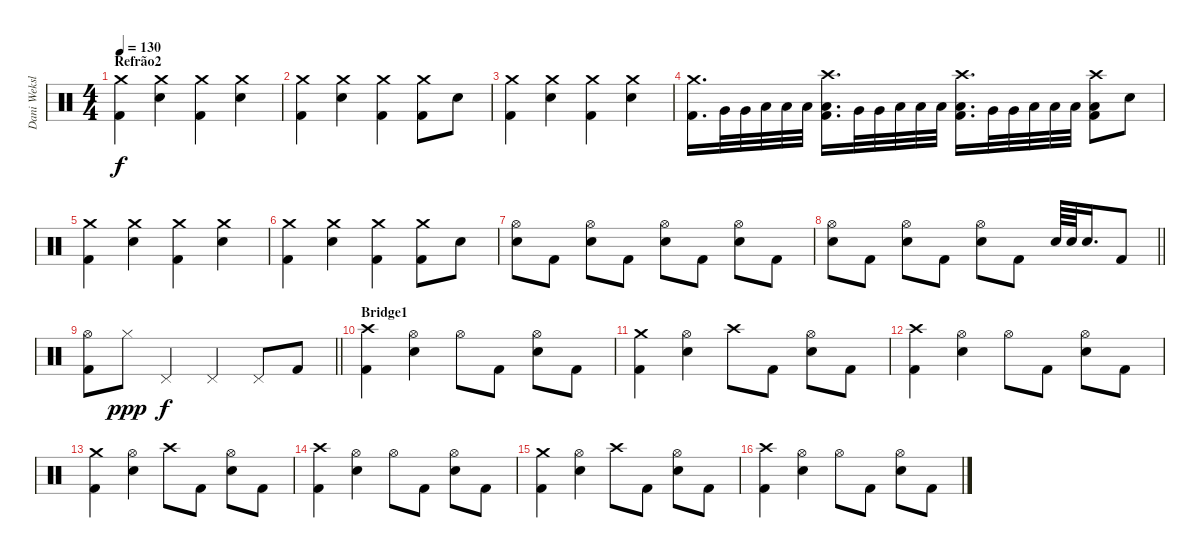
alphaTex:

\track ("Dani Weksler(Bateria)" "Dani Weksl") {instrument percussion}
\staff {score}
\articulation defaults
\ts (4 4)
\section ("" "Refrão2")
\tempo 130
\clef neutral
\ks c
("Crash medium (hit)" "Kick (hit) 2").4{dy f} ("Crash medium (hit)" "Electric Snare (hit)").4 ("Crash medium (hit)" "Kick (hit) 2").4 ("Crash medium (hit)" "Electric Snare (hit)").4 |
("Crash medium (hit)" "Kick (hit) 2").4 ("Crash medium (hit)" "Electric Snare (hit)").4 ("Crash medium (hit)" "Kick (hit) 2").4 ("Crash medium (hit)" "Kick (hit) 2").8 "Electric Snare (hit)".8 |
("Crash medium (hit)" "Kick (hit) 2").4 ("Crash medium (hit)" "Electric Snare (hit)").4 ("Crash medium (hit)" "Kick (hit) 2").4 ("Crash medium (hit)" "Electric Snare (hit)").4 |
("Crash medium (hit)" "Kick (hit) 2").16{d} "Very Low Tom (hit)".32 "Very Low Tom (hit)".32 "Low Floor Tom (hit)".32 "Low Floor Tom (hit)".32 "Low Floor Tom (hit)".32 ("Crash high (hit)" "Low Floor Tom (hit)" "Kick (hit) 2").16{d} "Very Low Tom (hit)".32 "Very Low Tom (hit)".32 "Low Floor Tom (hit)".32 "Low Floor Tom (hit)".32 "Low Floor Tom (hit)".32 ("Crash high (hit)" "Low Floor Tom (hit)" "Kick (hit) 2").16{d} "Very Low Tom (hit)".32 "Very Low Tom (hit)".32 "Low Floor Tom (hit)".32 "Low Floor Tom (hit)".32 "Low Floor Tom (hit)".32 ("Crash high (hit)" "Low Floor Tom (hit)" "Kick (hit) 2").8 "Electric Snare (hit)".8 |
("Crash medium (hit)" "Kick (hit) 2").4 ("Crash medium (hit)" "Electric Snare (hit)").4 ("Crash medium (hit)" "Kick (hit) 2").4 ("Crash medium (hit)" "Electric Snare (hit)").4 |
("Crash medium (hit)" "Kick (hit) 2").4 ("Crash medium (hit)" "Electric Snare (hit)").4 ("Crash medium (hit)" "Kick (hit) 2").4 ("Crash medium (hit)" "Kick (hit) 2").8 "Electric Snare (hit)".8 |
("Hi-Hat (open)" "Electric Snare (hit)").8 "Kick (hit) 2".8 ("Hi-Hat (open)" "Electric Snare (hit)").8 "Kick (hit) 2".8 ("Hi-Hat (open)" "Electric Snare (hit)").8 "Kick (hit) 2".8 ("Hi-Hat (open)" "Electric Snare (hit)").8 "Kick (hit) 2".8 |
\barLineRight lightlight
("Hi-Hat (open)" "Electric Snare (hit)").8 "Kick (hit) 2".8 ("Hi-Hat (open)" "Electric Snare (hit)").8 "Kick (hit) 2".8 ("Hi-Hat (open)" "Electric Snare (hit)").8 "Kick (hit) 2".8 "Electric Snare (hit)".64 "Electric Snare (hit)".64 "Electric Snare (hit)".16{d} "Kick (hit) 2".8 |
\barLineRight lightlight
("Hi-Hat (open)" "Kick (hit) 2").8 "Hi-Hat (closed)".8{dy ppp} "Pedal Hi-Hat (hit)".4{dy f} "Pedal Hi-Hat (hit)".4 "Pedal Hi-Hat (hit)".8 "Kick (hit) 2".8 |
\section ("" "Bridge1")
("Crash high (hit)" "Kick (hit) 2").4 ("Hi-Hat (open)" "Electric Snare (hit)").4 "Hi-Hat (open)".8 "Kick (hit) 2".8 ("Hi-Hat (open)" "Electric Snare (hit)").8 "Kick (hit) 2".8 |
("Crash medium (hit)" "Kick (hit) 2").4 ("Hi-Hat (open)" "Electric Snare (hit)").4 "Crash high (hit)".8 "Kick (hit) 2".8 ("Hi-Hat (open)" "Electric Snare (hit)").8 "Kick (hit) 2".8 |
("Crash high (hit)" "Kick (hit) 2").4 ("Hi-Hat (open)" "Electric Snare (hit)").4 "Hi-Hat (open)".8 "Kick (hit) 2".8 ("Hi-Hat (open)" "Electric Snare (hit)").8 "Kick (hit) 2".8 |
("Crash medium (hit)" "Kick (hit) 2").4 ("Hi-Hat (open)" "Electric Snare (hit)").4 "Crash high (hit)".8 "Kick (hit) 2".8 ("Hi-Hat (open)" "Electric Snare (hit)").8 "Kick (hit) 2".8 |
("Crash high (hit)" "Kick (hit) 2").4 ("Hi-Hat (open)" "Electric Snare (hit)").4 "Hi-Hat (open)".8 "Kick (hit) 2".8 ("Hi-Hat (open)" "Electric Snare (hit)").8 "Kick (hit) 2".8 |
("Crash medium (hit)" "Kick (hit) 2").4 ("Hi-Hat (open)" "Electric Snare (hit)").4 "Crash high (hit)".8 "Kick (hit) 2".8 ("Hi-Hat (open)" "Electric Snare (hit)").8 "Kick (hit) 2".8 |
("Crash high (hit)" "Kick (hit) 2").4 ("Hi-Hat (open)" "Electric Snare (hit)").4 "Hi-Hat (open)".8 "Kick (hit) 2".8 ("Hi-Hat (open)" "Electric Snare (hit)").8 "Kick (hit) 2".8
